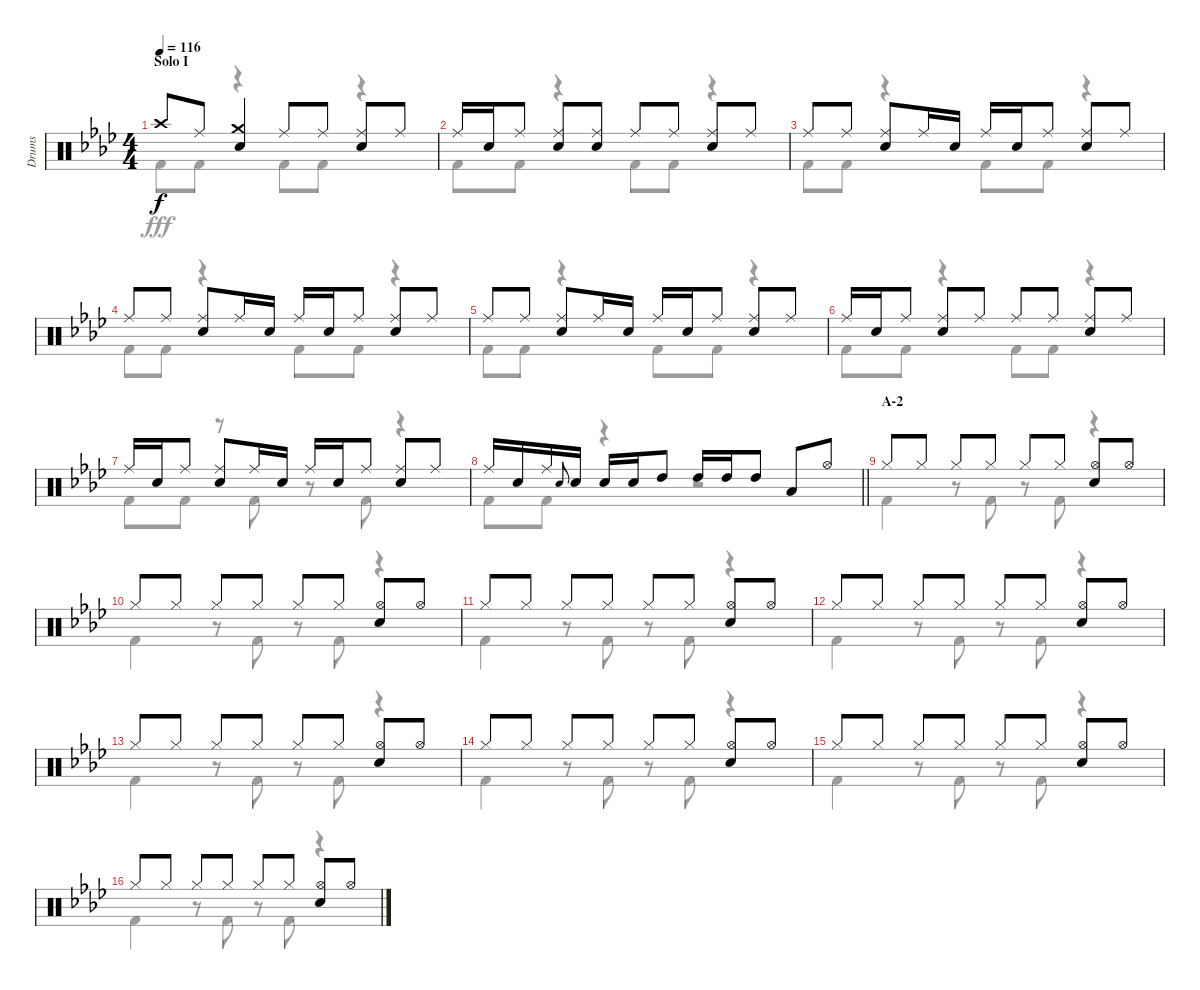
\track ("Drums" "Drums") {instrument percussion}
\staff {score}
\articulation defaults
\voice
\ts (4 4)
\section ("" "Solo I")
\tempo 116
\clef neutral
\ks ab "Crash high (hit)".8{dy f} "Ride (middle)".8
("Crash medium (hit)" "Snare (hit) 2").4 "Ride (middle)".8 "Ride (middle)".8 ("Ride (middle)" "Snare (hit) 2").8 "Ride (middle)".8 |
"Ride (middle)".16 "Snare (hit) 2".16 "Ride (middle)".8 ("Ride (middle)" "Snare (hit) 2").8 ("Ride (middle)" "Snare (hit) 2").8 "Ride (middle)".8 "Ride (middle)".8 ("Ride (middle)" "Snare (hit) 2").8 "Ride (middle)".8 |
"Ride (middle)".8 "Ride (middle)".8 ("Ride (middle)" "Snare (hit) 2").8 "Ride (middle)".16 "Snare (hit) 2".16 "Ride (middle)".16 "Snare (hit) 2".16 "Ride (middle)".8 ("Ride (middle)" "Snare (hit) 2").8 "Ride (middle)".8 |
"Ride (middle)".8 "Ride (middle)".8 ("Ride (middle)" "Snare (hit) 2").8 "Ride (middle)".16 "Snare (hit) 2".16 "Ride (middle)".16 "Snare (hit) 2".16 "Ride (middle)".8 ("Ride (middle)" "Snare (hit) 2").8 "Ride (middle)".8 |
"Ride (middle)".8 "Ride (middle)".8 ("Ride (middle)" "Snare (hit) 2").8 "Ride (middle)".16 "Snare (hit) 2".16 "Ride (middle)".16 "Snare (hit) 2".16 "Ride (middle)".8 ("Ride (middle)" "Snare (hit) 2").8 "Ride (middle)".8 |
"Ride (middle)".16 "Snare (hit) 2".16 "Ride (middle)".8 ("Ride (middle)" "Snare (hit) 2").8 "Ride (middle)".8 "Ride (middle)".8 "Ride (middle)".8 ("Ride (middle)" "Snare (hit) 2").8 "Ride (middle)".8 |
"Ride (middle)".16 "Snare (hit) 2".16 "Ride (middle)".8 ("Ride (middle)" "Snare (hit) 2").8 "Ride (middle)".16 "Snare (hit) 2".16 "Ride (middle)".16 "Snare (hit) 2".16 "Ride (middle)".8 ("Ride (middle)" "Snare (hit) 2").8 "Ride (middle)".8 |
\barLineRight lightlight "Ride (middle)".16 "Snare (hit) 2".16 "Ride (middle)".16 "Snare (hit) 2".8{gr onbeat} "Snare (hit) 2".16 "Snare (hit) 2".16 "Snare (hit) 2".16 "High Tom (hit)".8 "High Tom (hit)".16 "High Tom (hit)".16 "High Tom (hit)".8 "Low Tom (hit)".8 "Hi-Hat (open)".8
|
\section ("" "A-2")
"Hi-Hat (closed)".8 "Hi-Hat (closed)".8 "Hi-Hat (closed)".8 "Hi-Hat (closed)".8 "Hi-Hat (closed)".8 "Hi-Hat (closed)".8 ("Hi-Hat (open)" "Snare (hit) 2").8 "Hi-Hat (open)".8 |
"Hi-Hat (closed)".8 "Hi-Hat (closed)".8 "Hi-Hat (closed)".8 "Hi-Hat (closed)".8 "Hi-Hat (closed)".8 "Hi-Hat (closed)".8 ("Hi-Hat (open)" "Snare (hit) 2").8 "Hi-Hat (open)".8 |
"Hi-Hat (closed)".8 "Hi-Hat (closed)".8 "Hi-Hat (closed)".8 "Hi-Hat (closed)".8 "Hi-Hat (closed)".8 "Hi-Hat (closed)".8 ("Hi-Hat (open)" "Snare (hit) 2").8 "Hi-Hat (open)".8 |
"Hi-Hat (closed)".8 "Hi-Hat (closed)".8 "Hi-Hat (closed)".8 "Hi-Hat (closed)".8 "Hi-Hat (closed)".8 "Hi-Hat (closed)".8 ("Hi-Hat (open)" "Snare (hit) 2").8 "Hi-Hat (open)".8 |
"Hi-Hat (closed)".8 "Hi-Hat (closed)".8 "Hi-Hat (closed)".8 "Hi-Hat (closed)".8 "Hi-Hat (closed)".8 "Hi-Hat (closed)".8 ("Hi-Hat (open)" "Snare (hit) 2").8 "Hi-Hat (open)".8 |
"Hi-Hat (closed)".8 "Hi-Hat (closed)".8 "Hi-Hat (closed)".8 "Hi-Hat (closed)".8 "Hi-Hat (closed)".8 "Hi-Hat (closed)".8 ("Hi-Hat (open)" "Snare (hit) 2").8 "Hi-Hat (open)".8 |
"Hi-Hat (closed)".8 "Hi-Hat (closed)".8 "Hi-Hat (closed)".8 "Hi-Hat (closed)".8 "Hi-Hat (closed)".8 "Hi-Hat (closed)".8 ("Hi-Hat (open)" "Snare (hit) 2").8 "Hi-Hat (open)".8 |
"Hi-Hat (closed)".8 "Hi-Hat (closed)".8 "Hi-Hat (closed)".8 "Hi-Hat (closed)".8 "Hi-Hat (closed)".8 "Hi-Hat (closed)".8 ("Hi-Hat (open)" "Snare (hit) 2").8 "Hi-Hat (open)".8
\voice
\clef neutral
\ottava regular
\simile none
\ks ab "Kick (hit) 2".8{dy fff} "Kick (hit) 2".8
r.4 "Kick (hit) 2".8 "Kick (hit) 2".8 r.4 |
"Kick (hit) 2".8 "Kick (hit) 2".8 r.4 "Kick (hit) 2".8 "Kick (hit) 2".8 r.4 |
"Kick (hit) 2".8 "Kick (hit) 2".8 r.4 "Kick (hit) 2".8 "Kick (hit) 2".8 r.4 |
"Kick (hit) 2".8 "Kick (hit) 2".8 r.4 "Kick (hit) 2".8 "Kick (hit) 2".8 r.4 |
"Kick (hit) 2".8 "Kick (hit) 2".8 r.4 "Kick (hit) 2".8 "Kick (hit) 2".8 r.4 |
"Kick (hit) 2".8 "Kick (hit) 2".8 r.4 "Kick (hit) 2".8 "Kick (hit) 2".8 r.4 |
"Kick (hit) 2".8 "Kick (hit) 2".8 r.8 "Kick (hit) 2".8 r.8 "Kick (hit) 2".8 r.4 |
\barLineRight lightlight "Kick (hit) 2".8 "Kick (hit) 2".8
r.4 r.2 |
"Kick (hit) 2".4 r.8 "Kick (hit) 2".8 r.8 "Kick (hit) 2".8 r.4 |
"Kick (hit) 2".4 r.8 "Kick (hit) 2".8 r.8 "Kick (hit) 2".8 r.4 |
"Kick (hit) 2".4 r.8 "Kick (hit) 2".8 r.8 "Kick (hit) 2".8 r.4 |
"Kick (hit) 2".4 r.8 "Kick (hit) 2".8 r.8 "Kick (hit) 2".8 r.4 |
"Kick (hit) 2".4 r.8 "Kick (hit) 2".8 r.8 "Kick (hit) 2".8 r.4 |
"Kick (hit) 2".4 r.8 "Kick (hit) 2".8 r.8 "Kick (hit) 2".8 r.4 |
"Kick (hit) 2".4 r.8 "Kick (hit) 2".8 r.8 "Kick (hit) 2".8 r.4 |
"Kick (hit) 2".4 r.8 "Kick (hit) 2".8 r.8 "Kick (hit) 2".8 r.4
